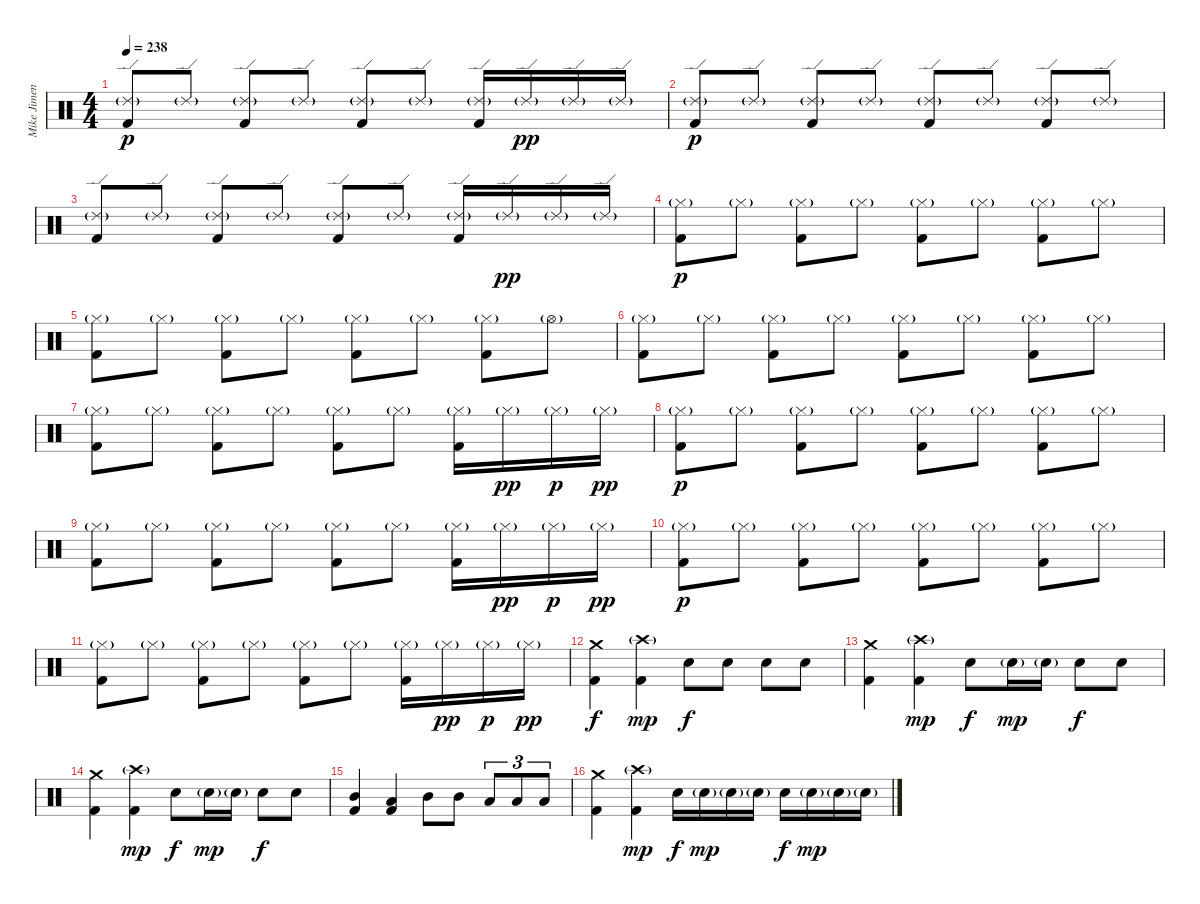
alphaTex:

\track ("Mike Jimenez" "Mike Jimen") {instrument percussion}
\staff {score}
\articulation defaults
\ts (4 4)
\tempo 238
\clef neutral
\ks c
("Ride (edge) 2"{g} "Kick (hit) 2").8{dy p} "Ride (edge) 2"{g}.8 ("Ride (edge) 2"{g} "Kick (hit) 2").8 "Ride (edge) 2"{g}.8 ("Ride (edge) 2"{g} "Kick (hit) 2").8 "Ride (edge) 2"{g}.8 ("Ride (edge) 2"{g} "Kick (hit) 2").16 "Ride (edge) 2"{g}.16{dy pp} "Ride (edge) 2"{g}.16 "Ride (edge) 2"{g}.16 |
("Ride (edge) 2"{g} "Kick (hit) 2").8{dy p} "Ride (edge) 2"{g}.8 ("Ride (edge) 2"{g} "Kick (hit) 2").8 "Ride (edge) 2"{g}.8 ("Ride (edge) 2"{g} "Kick (hit) 2").8 "Ride (edge) 2"{g}.8 ("Ride (edge) 2"{g} "Kick (hit) 2").8 "Ride (edge) 2"{g}.8 |
("Ride (edge) 2"{g} "Kick (hit) 2").8 "Ride (edge) 2"{g}.8 ("Ride (edge) 2"{g} "Kick (hit) 2").8 "Ride (edge) 2"{g}.8 ("Ride (edge) 2"{g} "Kick (hit) 2").8 "Ride (edge) 2"{g}.8 ("Ride (edge) 2"{g} "Kick (hit) 2").16 "Ride (edge) 2"{g}.16{dy pp} "Ride (edge) 2"{g}.16 "Ride (edge) 2"{g}.16 |
("Hi-Hat (closed)"{g} "Kick (hit) 2").8{dy p} "Hi-Hat (closed)"{g}.8 ("Hi-Hat (closed)"{g} "Kick (hit) 2").8 "Hi-Hat (closed)"{g}.8 ("Hi-Hat (closed)"{g} "Kick (hit) 2").8 "Hi-Hat (closed)"{g}.8 ("Hi-Hat (closed)"{g} "Kick (hit) 2").8 "Hi-Hat (closed)"{g}.8 |
("Hi-Hat (closed)"{g} "Kick (hit) 2").8 "Hi-Hat (closed)"{g}.8 ("Hi-Hat (closed)"{g} "Kick (hit) 2").8 "Hi-Hat (closed)"{g}.8 ("Hi-Hat (closed)"{g} "Kick (hit) 2").8 "Hi-Hat (closed)"{g}.8 ("Hi-Hat (closed)"{g} "Kick (hit) 2").8 "Hi-Hat (open)"{g}.8 |
("Hi-Hat (closed)"{g} "Kick (hit) 2").8 "Hi-Hat (closed)"{g}.8 ("Hi-Hat (closed)"{g} "Kick (hit) 2").8 "Hi-Hat (closed)"{g}.8 ("Hi-Hat (closed)"{g} "Kick (hit) 2").8 "Hi-Hat (closed)"{g}.8 ("Hi-Hat (closed)"{g} "Kick (hit) 2").8 "Hi-Hat (closed)"{g}.8 |
("Hi-Hat (closed)"{g} "Kick (hit) 2").8 "Hi-Hat (closed)"{g}.8 ("Hi-Hat (closed)"{g} "Kick (hit) 2").8 "Hi-Hat (closed)"{g}.8 ("Hi-Hat (closed)"{g} "Kick (hit) 2").8 "Hi-Hat (closed)"{g}.8 ("Hi-Hat (closed)"{g} "Kick (hit) 2").16 "Hi-Hat (closed)"{g}.16{dy pp} "Hi-Hat (closed)"{g}.16{dy p} "Hi-Hat (closed)"{g}.16{dy pp} |
("Hi-Hat (closed)"{g} "Kick (hit) 2").8{dy p} "Hi-Hat (closed)"{g}.8 ("Hi-Hat (closed)"{g} "Kick (hit) 2").8 "Hi-Hat (closed)"{g}.8 ("Hi-Hat (closed)"{g} "Kick (hit) 2").8 "Hi-Hat (closed)"{g}.8 ("Hi-Hat (closed)"{g} "Kick (hit) 2").8 "Hi-Hat (closed)"{g}.8 |
("Hi-Hat (closed)"{g} "Kick (hit) 2").8 "Hi-Hat (closed)"{g}.8 ("Hi-Hat (closed)"{g} "Kick (hit) 2").8 "Hi-Hat (closed)"{g}.8 ("Hi-Hat (closed)"{g} "Kick (hit) 2").8 "Hi-Hat (closed)"{g}.8 ("Hi-Hat (closed)"{g} "Kick (hit) 2").16 "Hi-Hat (closed)"{g}.16{dy pp} "Hi-Hat (closed)"{g}.16{dy p} "Hi-Hat (closed)"{g}.16{dy pp} |
("Hi-Hat (closed)"{g} "Kick (hit) 2").8{dy p} "Hi-Hat (closed)"{g}.8 ("Hi-Hat (closed)"{g} "Kick (hit) 2").8 "Hi-Hat (closed)"{g}.8 ("Hi-Hat (closed)"{g} "Kick (hit) 2").8 "Hi-Hat (closed)"{g}.8 ("Hi-Hat (closed)"{g} "Kick (hit) 2").8 "Hi-Hat (closed)"{g}.8 |
("Hi-Hat (closed)"{g} "Kick (hit) 2").8 "Hi-Hat (closed)"{g}.8 ("Hi-Hat (closed)"{g} "Kick (hit) 2").8 "Hi-Hat (closed)"{g}.8 ("Hi-Hat (closed)"{g} "Kick (hit) 2").8 "Hi-Hat (closed)"{g}.8 ("Hi-Hat (closed)"{g} "Kick (hit) 2").16 "Hi-Hat (closed)"{g}.16{dy pp} "Hi-Hat (closed)"{g}.16{dy p} "Hi-Hat (closed)"{g}.16{dy pp} |
("Crash medium (hit)" "Kick (hit) 2").4{dy f} ("Crash high (hit)"{g} "Kick (hit) 2").4{dy mp} "Electric Snare (hit)".8{dy f} "Electric Snare (hit)".8 "Electric Snare (hit)".8 "Electric Snare (hit)".8 |
("Crash medium (hit)" "Kick (hit) 2").4 ("Crash high (hit)"{g} "Kick (hit) 2").4{dy mp} "Electric Snare (hit)".8{dy f} "Electric Snare (hit)"{g}.16{dy mp} "Electric Snare (hit)"{g}.16 "Electric Snare (hit)".8{dy f} "Electric Snare (hit)".8 |
("Crash medium (hit)" "Kick (hit) 2").4 ("Crash high (hit)"{g} "Kick (hit) 2").4{dy mp} "Electric Snare (hit)".8{dy f} "Electric Snare (hit)"{g}.16{dy mp} "Electric Snare (hit)"{g}.16 "Electric Snare (hit)".8{dy f} "Electric Snare (hit)".8 |
("Mid Tom (hit)" "Kick (hit) 2").4 ("Low Tom (hit)" "Kick (hit) 2").4 "Mid Tom (hit)".8 "Mid Tom (hit)".8 "Low Tom (hit)".8{tu (3 2)} "Low Tom (hit)".8{tu (3 2)} "Low Floor Tom (hit)".8{tu (3 2)} |
("Crash medium (hit)" "Kick (hit) 2").4 ("Crash high (hit)"{g} "Kick (hit) 2").4{dy mp} "Electric Snare (hit)".16{dy f} "Electric Snare (hit)"{g}.16{dy mp} "Electric Snare (hit)"{g}.16 "Electric Snare (hit)"{g}.16 "Electric Snare (hit)".16{dy f} "Electric Snare (hit)"{g}.16{dy mp} "Electric Snare (hit)"{g}.16 "Electric Snare (hit)"{g}.16
